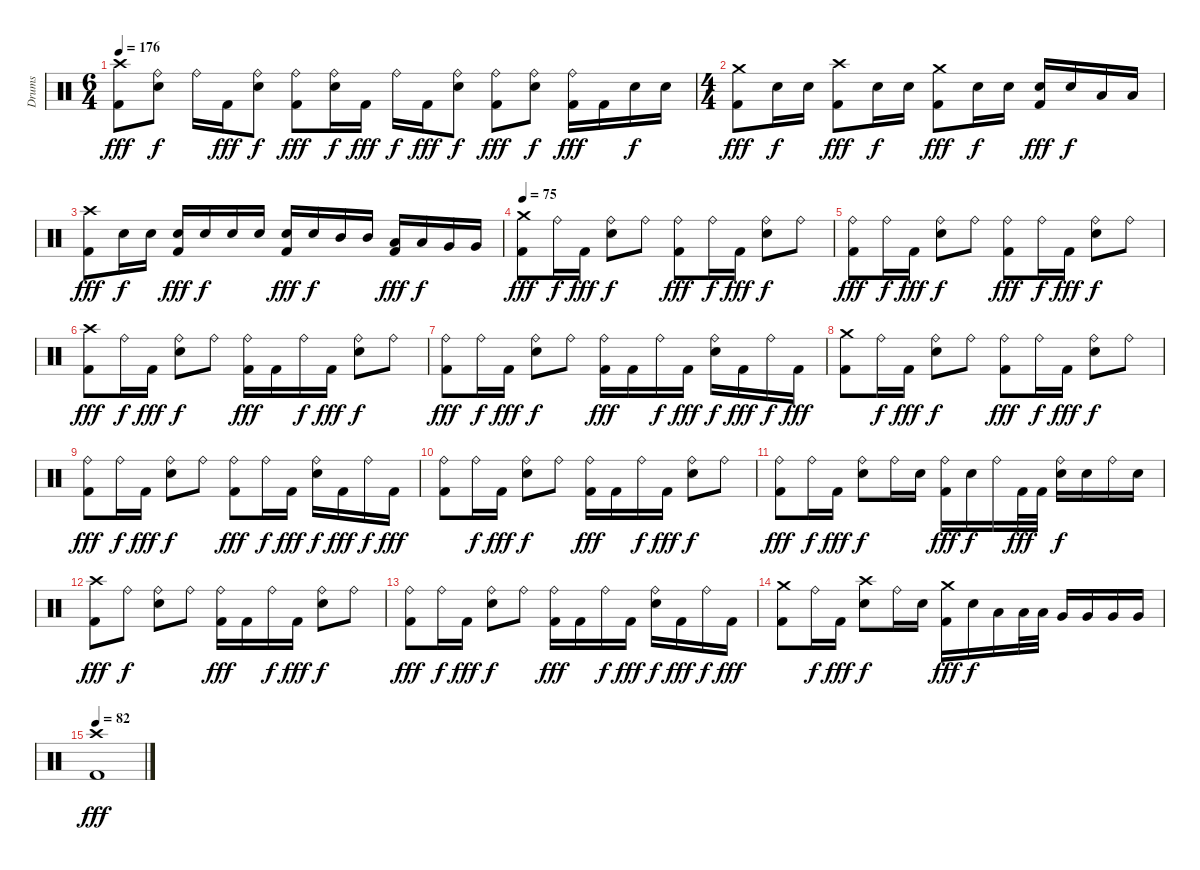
\track ("Drums" "Drums") {instrument percussion}
\staff {score}
\articulation defaults
\ts (6 4)
\tempo 176
\clef neutral
\ks c
("Crash high (hit)" "Kick (hit) 2").8{dy fff} ("Ride (bell)" "Snare (hit) 2").8{dy f} "Ride (bell)".16 "Kick (hit) 2".16{dy fff} ("Ride (bell)" "Snare (hit) 2").8{dy f} ("Ride (bell)" "Kick (hit) 2").8{dy fff} ("Ride (bell)" "Snare (hit) 2").16{dy f} "Kick (hit) 2".16{dy fff} "Ride (bell)".16{dy f} "Kick (hit) 2".16{dy fff} ("Ride (bell)" "Snare (hit) 2").8{dy f} ("Ride (bell)" "Kick (hit) 2").8{dy fff} ("Ride (bell)" "Snare (hit) 2").8{dy f} ("Ride (bell)" "Kick (hit) 2").16{dy fff} "Kick (hit) 2".16 "Snare (hit) 2".16{dy f} "Snare (hit) 2".16 |
\ts (4 4)
("Crash medium (hit)" "Kick (hit) 2").8{dy fff} "Snare (hit) 2".16{dy f} "Snare (hit) 2".16 ("Crash high (hit)" "Kick (hit) 2").8{dy fff} "Snare (hit) 2".16{dy f} "Snare (hit) 2".16 ("Crash medium (hit)" "Kick (hit) 2").8{dy fff} "Snare (hit) 2".16{dy f} "Snare (hit) 2".16 ("Snare (hit) 2" "Kick (hit) 2").16{dy fff} "Snare (hit) 2".16{dy f} "Low Tom (hit)".16 "Low Tom (hit)".16 |
("Crash high (hit)" "Kick (hit) 2").8{dy fff} "Snare (hit) 2".16{dy f} "Snare (hit) 2".16 ("Snare (hit) 2" "Kick (hit) 2").16{dy fff} "Snare (hit) 2".16{dy f} "Snare (hit) 2".16 "Snare (hit) 2".16 ("Snare (hit) 2" "Kick (hit) 2").16{dy fff} "Snare (hit) 2".16{dy f} "Mid Tom (hit)".16 "Mid Tom (hit)".16 ("Low Tom (hit)" "Kick (hit) 2").16{dy fff} "Low Tom (hit)".16{dy f} "Very Low Tom (hit)".16 "Very Low Tom (hit)".16 |
\tempo 75
("Crash medium (hit)" "Kick (hit) 2").8{dy fff} "Ride (bell)".16{dy f} "Kick (hit) 2".16{dy fff} ("Ride (bell)" "Snare (hit) 2").8{dy f} "Ride (bell)".8 ("Ride (bell)" "Kick (hit) 2").8{dy fff} "Ride (bell)".16{dy f} "Kick (hit) 2".16{dy fff} ("Ride (bell)" "Snare (hit) 2").8{dy f} "Ride (bell)".8 |
("Ride (bell)" "Kick (hit) 2").8{dy fff} "Ride (bell)".16{dy f} "Kick (hit) 2".16{dy fff} ("Ride (bell)" "Snare (hit) 2").8{dy f} "Ride (bell)".8 ("Ride (bell)" "Kick (hit) 2").8{dy fff} "Ride (bell)".16{dy f} "Kick (hit) 2".16{dy fff} ("Ride (bell)" "Snare (hit) 2").8{dy f} "Ride (bell)".8 |
("Crash high (hit)" "Kick (hit) 2").8{dy fff} "Ride (bell)".16{dy f} "Kick (hit) 2".16{dy fff} ("Ride (bell)" "Snare (hit) 2").8{dy f} "Ride (bell)".8 ("Ride (bell)" "Kick (hit) 2").16{dy fff} "Kick (hit) 2".16 "Ride (bell)".16{dy f} "Kick (hit) 2".16{dy fff} ("Ride (bell)" "Snare (hit) 2").8{dy f} "Ride (bell)".8 |
("Ride (bell)" "Kick (hit) 2").8{dy fff} "Ride (bell)".16{dy f} "Kick (hit) 2".16{dy fff} ("Ride (bell)" "Snare (hit) 2").8{dy f} "Ride (bell)".8 ("Ride (bell)" "Kick (hit) 2").16{dy fff} "Kick (hit) 2".16 "Ride (bell)".16{dy f} "Kick (hit) 2".16{dy fff} ("Ride (bell)" "Snare (hit) 2").16{dy f} "Kick (hit) 2".16{dy fff} "Ride (bell)".16{dy f} "Kick (hit) 2".16{dy fff} |
("Crash medium (hit)" "Kick (hit) 2").8 "Ride (bell)".16{dy f} "Kick (hit) 2".16{dy fff} ("Ride (bell)" "Snare (hit) 2").8{dy f} "Ride (bell)".8 ("Ride (bell)" "Kick (hit) 2").8{dy fff} "Ride (bell)".16{dy f} "Kick (hit) 2".16{dy fff} ("Ride (bell)" "Snare (hit) 2").8{dy f} "Ride (bell)".8 |
("Ride (bell)" "Kick (hit) 2").8{dy fff} "Ride (bell)".16{dy f} "Kick (hit) 2".16{dy fff} ("Ride (bell)" "Snare (hit) 2").8{dy f} "Ride (bell)".8 ("Ride (bell)" "Kick (hit) 2").8{dy fff} "Ride (bell)".16{dy f} "Kick (hit) 2".16{dy fff} ("Ride (bell)" "Snare (hit) 2").16{dy f} "Kick (hit) 2".16{dy fff} "Ride (bell)".16{dy f} "Kick (hit) 2".16{dy fff} |
("Ride (bell)" "Kick (hit) 2").8 "Ride (bell)".16{dy f} "Kick (hit) 2".16{dy fff} ("Ride (bell)" "Snare (hit) 2").8{dy f} "Ride (bell)".8 ("Ride (bell)" "Kick (hit) 2").16{dy fff} "Kick (hit) 2".16 "Ride (bell)".16{dy f} "Kick (hit) 2".16{dy fff} ("Ride (bell)" "Snare (hit) 2").8{dy f} "Ride (bell)".8 |
("Ride (bell)" "Kick (hit) 2").8{dy fff} "Ride (bell)".16{dy f} "Kick (hit) 2".16{dy fff} ("Ride (bell)" "Snare (hit) 2").8{dy f} "Ride (bell)".16 "Snare (hit) 2".16 ("Ride (bell)" "Kick (hit) 2").16{dy fff} "Snare (hit) 2".16{dy f} "Ride (bell)".16 "Kick (hit) 2".32{dy fff} "Kick (hit) 2".32 ("Ride (bell)" "Snare (hit) 2").16{dy f} "Snare (hit) 2".16 "Ride (bell)".16 "Snare (hit) 2".16 |
("Crash high (hit)" "Kick (hit) 2").8{dy fff} "Ride (bell)".8{dy f} ("Ride (bell)" "Snare (hit) 2").8 "Ride (bell)".8 ("Ride (bell)" "Kick (hit) 2").16{dy fff} "Kick (hit) 2".16 "Ride (bell)".16{dy f} "Kick (hit) 2".16{dy fff} ("Ride (bell)" "Snare (hit) 2").8{dy f} "Ride (bell)".8 |
("Ride (bell)" "Kick (hit) 2").8{dy fff} "Ride (bell)".16{dy f} "Kick (hit) 2".16{dy fff} ("Ride (bell)" "Snare (hit) 2").8{dy f} "Ride (bell)".8 ("Ride (bell)" "Kick (hit) 2").16{dy fff} "Kick (hit) 2".16 "Ride (bell)".16{dy f} "Kick (hit) 2".16{dy fff} ("Ride (bell)" "Snare (hit) 2").16{dy f} "Kick (hit) 2".16{dy fff} "Ride (bell)".16{dy f} "Kick (hit) 2".16{dy fff} |
("Crash medium (hit)" "Kick (hit) 2").8 "Ride (bell)".16{dy f} "Kick (hit) 2".16{dy fff} ("Crash high (hit)" "Snare (hit) 2").8{dy f} "Ride (bell)".16 "Snare (hit) 2".16 ("Crash medium (hit)" "Kick (hit) 2").16{dy fff} "Snare (hit) 2".16{dy f} "Low Tom (hit)".16 "Low Tom (hit)".32 "Low Tom (hit)".32 "Very Low Tom (hit)".16 "Very Low Tom (hit)".16 "Very Low Tom (hit)".16 "Very Low Tom (hit)".16 |
\tempo 82
("Crash high (hit)" "Kick (hit) 2").1{dy fff}
